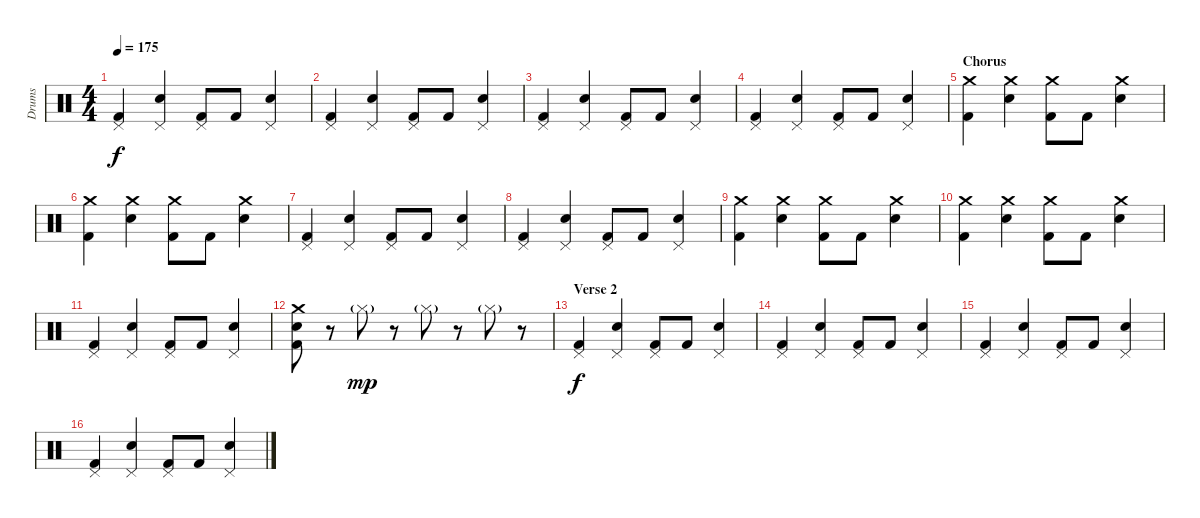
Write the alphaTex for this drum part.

\track ("Drums" "Drums") {instrument percussion}
\staff {score}
\articulation defaults
\ts (4 4)
\tempo 175
\clef neutral
\ks c
("Pedal Hi-Hat (hit)" "Kick (hit) 2").4{dy f} ("Pedal Hi-Hat (hit)" "Electric Snare (hit)").4 ("Pedal Hi-Hat (hit)" "Kick (hit) 2").8 "Kick (hit) 2".8 ("Pedal Hi-Hat (hit)" "Electric Snare (hit)").4 |
("Pedal Hi-Hat (hit)" "Kick (hit) 2").4 ("Pedal Hi-Hat (hit)" "Electric Snare (hit)").4 ("Pedal Hi-Hat (hit)" "Kick (hit) 2").8 "Kick (hit) 2".8 ("Pedal Hi-Hat (hit)" "Electric Snare (hit)").4 |
("Pedal Hi-Hat (hit)" "Kick (hit) 2").4 ("Pedal Hi-Hat (hit)" "Electric Snare (hit)").4 ("Pedal Hi-Hat (hit)" "Kick (hit) 2").8 "Kick (hit) 2".8 ("Pedal Hi-Hat (hit)" "Electric Snare (hit)").4 |
("Pedal Hi-Hat (hit)" "Kick (hit) 2").4 ("Pedal Hi-Hat (hit)" "Electric Snare (hit)").4 ("Pedal Hi-Hat (hit)" "Kick (hit) 2").8 "Kick (hit) 2".8 ("Pedal Hi-Hat (hit)" "Electric Snare (hit)").4 |
\section ("" "Chorus")
("Crash medium (hit)" "Kick (hit) 2").4 ("Crash medium (hit)" "Electric Snare (hit)").4 ("Crash medium (hit)" "Kick (hit) 2").8 "Kick (hit) 2".8 ("Crash medium (hit)" "Electric Snare (hit)").4 |
("Crash medium (hit)" "Kick (hit) 2").4 ("Crash medium (hit)" "Electric Snare (hit)").4 ("Crash medium (hit)" "Kick (hit) 2").8 "Kick (hit) 2".8 ("Crash medium (hit)" "Electric Snare (hit)").4 |
("Pedal Hi-Hat (hit)" "Kick (hit) 2").4 ("Pedal Hi-Hat (hit)" "Electric Snare (hit)").4 ("Pedal Hi-Hat (hit)" "Kick (hit) 2").8 "Kick (hit) 2".8 ("Pedal Hi-Hat (hit)" "Electric Snare (hit)").4 |
("Pedal Hi-Hat (hit)" "Kick (hit) 2").4 ("Pedal Hi-Hat (hit)" "Electric Snare (hit)").4 ("Pedal Hi-Hat (hit)" "Kick (hit) 2").8 "Kick (hit) 2".8 ("Pedal Hi-Hat (hit)" "Electric Snare (hit)").4 |
("Crash medium (hit)" "Kick (hit) 2").4 ("Crash medium (hit)" "Electric Snare (hit)").4 ("Crash medium (hit)" "Kick (hit) 2").8 "Kick (hit) 2".8 ("Crash medium (hit)" "Electric Snare (hit)").4 |
("Crash medium (hit)" "Kick (hit) 2").4 ("Crash medium (hit)" "Electric Snare (hit)").4 ("Crash medium (hit)" "Kick (hit) 2").8 "Kick (hit) 2".8 ("Crash medium (hit)" "Electric Snare (hit)").4 |
("Pedal Hi-Hat (hit)" "Kick (hit) 2").4 ("Pedal Hi-Hat (hit)" "Electric Snare (hit)").4 ("Pedal Hi-Hat (hit)" "Kick (hit) 2").8 "Kick (hit) 2".8 ("Pedal Hi-Hat (hit)" "Electric Snare (hit)").4 |
("Crash medium (hit)" "Kick (hit) 2" "Electric Snare (hit)").8 r.8 "Hi-Hat (closed)"{g}.8{dy mp} r.8 "Hi-Hat (closed)"{g}.8 r.8 "Hi-Hat (closed)"{g}.8 r.8 |
\section ("" "Verse 2")
("Pedal Hi-Hat (hit)" "Kick (hit) 2").4{dy f} ("Pedal Hi-Hat (hit)" "Electric Snare (hit)").4 ("Pedal Hi-Hat (hit)" "Kick (hit) 2").8 "Kick (hit) 2".8 ("Pedal Hi-Hat (hit)" "Electric Snare (hit)").4 |
("Pedal Hi-Hat (hit)" "Kick (hit) 2").4 ("Pedal Hi-Hat (hit)" "Electric Snare (hit)").4 ("Pedal Hi-Hat (hit)" "Kick (hit) 2").8 "Kick (hit) 2".8 ("Pedal Hi-Hat (hit)" "Electric Snare (hit)").4 |
("Pedal Hi-Hat (hit)" "Kick (hit) 2").4 ("Pedal Hi-Hat (hit)" "Electric Snare (hit)").4 ("Pedal Hi-Hat (hit)" "Kick (hit) 2").8 "Kick (hit) 2".8 ("Pedal Hi-Hat (hit)" "Electric Snare (hit)").4 |
("Pedal Hi-Hat (hit)" "Kick (hit) 2").4 ("Pedal Hi-Hat (hit)" "Electric Snare (hit)").4 ("Pedal Hi-Hat (hit)" "Kick (hit) 2").8 "Kick (hit) 2".8 ("Pedal Hi-Hat (hit)" "Electric Snare (hit)").4
